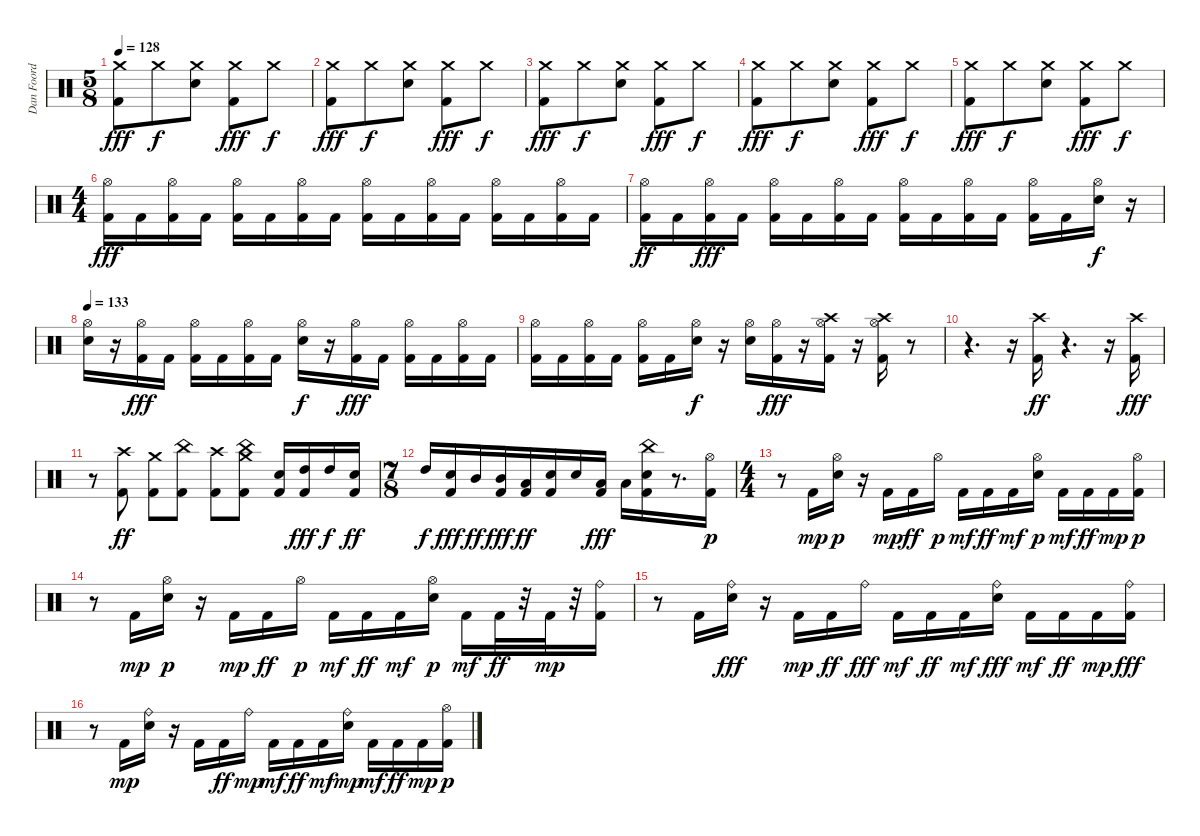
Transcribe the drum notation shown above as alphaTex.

\track ("Dan Foord 2" "Dan Foord ") {instrument percussion}
\staff {score}
\articulation defaults
\ts (5 8)
\tempo 128
\clef neutral
\ks c
("Kick (hit) 2" "Crash medium (hit)").8{dy fff} "Crash medium (hit)".8{dy f} ("Snare (hit) 2" "Crash medium (hit)").8 ("Kick (hit) 2" "Crash medium (hit)").8{dy fff} "Crash medium (hit)".8{dy f} |
("Kick (hit) 2" "Crash medium (hit)").8{dy fff} "Crash medium (hit)".8{dy f} ("Snare (hit) 2" "Crash medium (hit)").8 ("Kick (hit) 2" "Crash medium (hit)").8{dy fff} "Crash medium (hit)".8{dy f} |
("Kick (hit) 2" "Crash medium (hit)").8{dy fff} "Crash medium (hit)".8{dy f} ("Snare (hit) 2" "Crash medium (hit)").8 ("Kick (hit) 2" "Crash medium (hit)").8{dy fff} "Crash medium (hit)".8{dy f} |
("Kick (hit) 2" "Crash medium (hit)").8{dy fff} "Crash medium (hit)".8{dy f} ("Snare (hit) 2" "Crash medium (hit)").8 ("Kick (hit) 2" "Crash medium (hit)").8{dy fff} "Crash medium (hit)".8{dy f} |
("Kick (hit) 2" "Crash medium (hit)").8{dy fff} "Crash medium (hit)".8{dy f} ("Snare (hit) 2" "Crash medium (hit)").8 ("Kick (hit) 2" "Crash medium (hit)").8{dy fff} "Crash medium (hit)".8{dy f} |
\ts (4 4)
("Kick (hit) 2" "Hi-Hat (open)").16{dy fff} "Kick (hit) 2".16 ("Kick (hit) 2" "Hi-Hat (open)").16 "Kick (hit) 2".16 ("Kick (hit) 2" "Hi-Hat (open)").16 "Kick (hit) 2".16 ("Kick (hit) 2" "Hi-Hat (open)").16 "Kick (hit) 2".16 ("Kick (hit) 2" "Hi-Hat (open)").16 "Kick (hit) 2".16 ("Kick (hit) 2" "Hi-Hat (open)").16 "Kick (hit) 2".16 ("Kick (hit) 2" "Hi-Hat (open)").16 "Kick (hit) 2".16 ("Kick (hit) 2" "Hi-Hat (open)").16 "Kick (hit) 2".16 |
("Kick (hit) 2" "Hi-Hat (open)").16{dy ff} "Kick (hit) 2".16 ("Kick (hit) 2" "Hi-Hat (open)").16{dy fff} "Kick (hit) 2".16 ("Kick (hit) 2" "Hi-Hat (open)").16 "Kick (hit) 2".16 ("Kick (hit) 2" "Hi-Hat (open)").16 "Kick (hit) 2".16 ("Kick (hit) 2" "Hi-Hat (open)").16 "Kick (hit) 2".16 ("Kick (hit) 2" "Hi-Hat (open)").16 "Kick (hit) 2".16 ("Kick (hit) 2" "Hi-Hat (open)").16 "Kick (hit) 2".16 ("Snare (hit) 2" "Hi-Hat (open)").16{dy f} r.16 |
\tempo 133
("Snare (hit) 2" "Hi-Hat (open)").16 r.16 ("Kick (hit) 2" "Hi-Hat (open)").16{dy fff} "Kick (hit) 2".16 ("Kick (hit) 2" "Hi-Hat (open)").16 "Kick (hit) 2".16 ("Kick (hit) 2" "Hi-Hat (open)").16 "Kick (hit) 2".16 ("Snare (hit) 2" "Hi-Hat (open)").16{dy f} r.16 ("Kick (hit) 2" "Hi-Hat (open)").16{dy fff} "Kick (hit) 2".16 ("Kick (hit) 2" "Hi-Hat (open)").16 "Kick (hit) 2".16 ("Kick (hit) 2" "Hi-Hat (open)").16 "Kick (hit) 2".16 |
("Kick (hit) 2" "Hi-Hat (open)").16 "Kick (hit) 2".16 ("Kick (hit) 2" "Hi-Hat (open)").16 "Kick (hit) 2".16 ("Kick (hit) 2" "Hi-Hat (open)").16 "Kick (hit) 2".16 ("Snare (hit) 2" "Hi-Hat (open)").16{dy f} r.16 ("Snare (hit) 2" "Hi-Hat (open)").16 ("Kick (hit) 2" "Hi-Hat (open)").16{dy fff} r.16 ("Kick (hit) 2" "Hi-Hat (open)" "Crash high (hit)").16 r.16 ("Kick (hit) 2" "Hi-Hat (open)" "Crash high (hit)").16 r.8 |
r.4{d} r.16 ("Kick (hit) 2" "Crash high (hit)").16{dy ff} r.4{d} r.16 ("Kick (hit) 2" "Crash high (hit)").16{dy fff} |
r.8 ("Kick (hit) 2" "Crash high (hit)").8{dy ff} ("Kick (hit) 2" "Crash medium (hit)").8 ("Kick (hit) 2" "China (hit)").8 ("Kick (hit) 2" "Crash high (hit)").8 ("Kick (hit) 2" "China (hit)" "Crash medium (hit)").8 ("Kick (hit) 2" "Snare (hit) 2").16 ("Kick (hit) 2" "High Tom (hit)").16{dy fff} "High Tom (hit)".16{dy f} ("Kick (hit) 2" "Snare (hit) 2").16{dy ff} |
\ts (7 8)
"High Tom (hit)".16{dy f} ("Kick (hit) 2" "Snare (hit) 2").16{dy fff} "Mid Tom (hit)".16{dy ff} ("Kick (hit) 2" "Mid Tom (hit)").16{dy fff} ("Kick (hit) 2" "Low Tom (hit)").16{dy ff} ("Kick (hit) 2" "Snare (hit) 2").16 "Snare (hit) 2".16 ("Kick (hit) 2" "Low Floor Tom (hit)").16{dy fff} "Low Floor Tom (hit)".16 ("Kick (hit) 2" "Snare (hit) 2" "China (hit)").16 r.8{d} ("Kick (hit) 2" "Hi-Hat (open)").16{dy p} |
\ts (4 4)
r.8 "Kick (hit) 2".16{dy mp} ("Snare (hit) 2" "Hi-Hat (open)").16{dy p} r.16 "Kick (hit) 2".16{dy mp} "Kick (hit) 2".16{dy ff} "Hi-Hat (open)".16{dy p} "Kick (hit) 2".16{dy mf} "Kick (hit) 2".16{dy ff} "Kick (hit) 2".16{dy mf} ("Snare (hit) 2" "Hi-Hat (open)").16{dy p} "Kick (hit) 2".16{dy mf} "Kick (hit) 2".16{dy ff} "Kick (hit) 2".16{dy mp} ("Kick (hit) 2" "Hi-Hat (open)").16{dy p} |
r.8 "Kick (hit) 2".16{dy mp} ("Snare (hit) 2" "Hi-Hat (open)").16{dy p} r.16 "Kick (hit) 2".16{dy mp} "Kick (hit) 2".16{dy ff} "Hi-Hat (open)".16{dy p} "Kick (hit) 2".16{dy mf} "Kick (hit) 2".16{dy ff} "Kick (hit) 2".16{dy mf} ("Snare (hit) 2" "Hi-Hat (open)").16{dy p} "Kick (hit) 2".16{dy mf} "Kick (hit) 2".32{dy ff} r.32 "Kick (hit) 2".32{dy mp} r.32 ("Kick (hit) 2" "Ride (bell)").16 |
r.8 "Kick (hit) 2".16 ("Snare (hit) 2" "Ride (bell)").16{dy fff} r.16 "Kick (hit) 2".16{dy mp} "Kick (hit) 2".16{dy ff} "Ride (bell)".16{dy fff} "Kick (hit) 2".16{dy mf} "Kick (hit) 2".16{dy ff} "Kick (hit) 2".16{dy mf} ("Snare (hit) 2" "Ride (bell)").16{dy fff} "Kick (hit) 2".16{dy mf} "Kick (hit) 2".16{dy ff} "Kick (hit) 2".16{dy mp} ("Kick (hit) 2" "Ride (bell)").16{dy fff} |
r.8 "Kick (hit) 2".16{dy mp} ("Snare (hit) 2" "Ride (bell)").16 r.16 "Kick (hit) 2".16 "Kick (hit) 2".16{dy ff} "Ride (bell)".16{dy mp} "Kick (hit) 2".16{dy mf} "Kick (hit) 2".16{dy ff} "Kick (hit) 2".16{dy mf} ("Snare (hit) 2" "Ride (bell)").16{dy mp} "Kick (hit) 2".16{dy mf} "Kick (hit) 2".16{dy ff} "Kick (hit) 2".16{dy mp} ("Kick (hit) 2" "Hi-Hat (open)").16{dy p}
